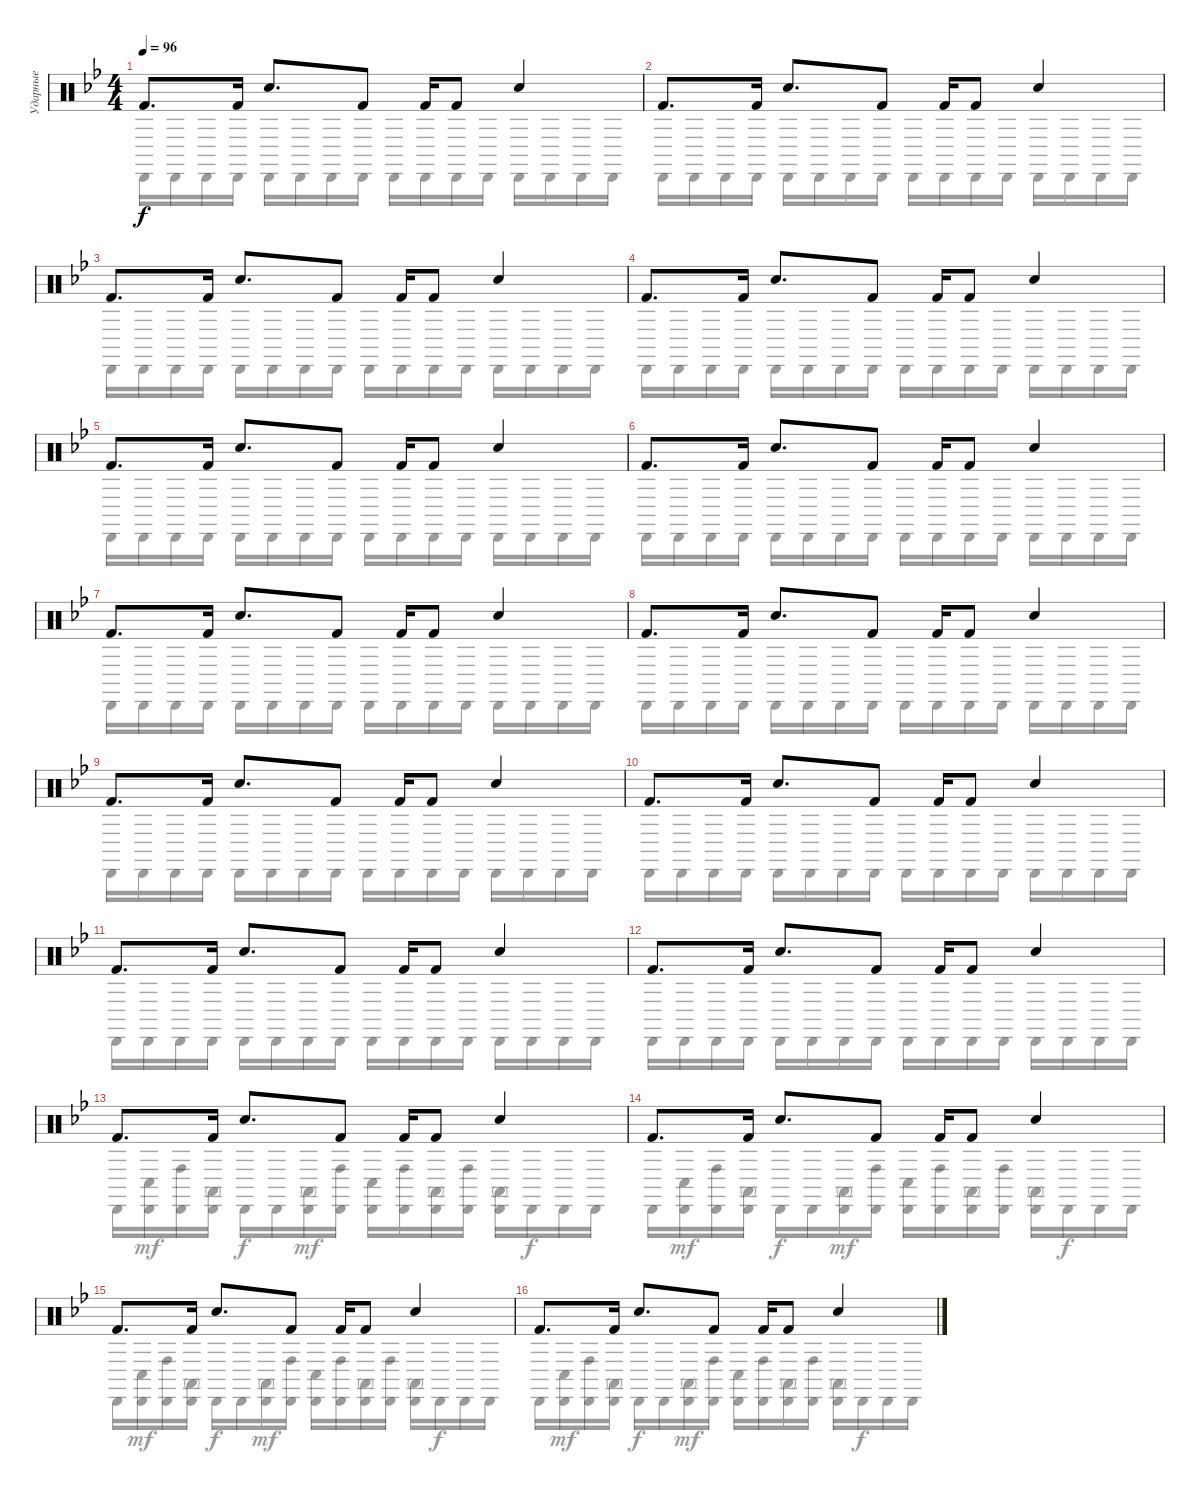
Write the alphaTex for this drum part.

\track ("Ударные" "Ударные") {instrument percussion}
\staff {score}
\articulation defaults
\voice
\ts (4 4)
\tempo 96
\clef neutral
\ks bb "Kick (hit) 2".8{d dy f} "Kick (hit) 2".16 "Hand Clap (hit)".8{d} "Kick (hit) 2".8 "Kick (hit) 2".16 "Kick (hit) 2".8 "Hand Clap (hit)".4
|
"Kick (hit) 2".8{d} "Kick (hit) 2".16 "Hand Clap (hit)".8{d} "Kick (hit) 2".8 "Kick (hit) 2".16 "Kick (hit) 2".8 "Hand Clap (hit)".4 |
"Kick (hit) 2".8{d} "Kick (hit) 2".16 "Hand Clap (hit)".8{d} "Kick (hit) 2".8 "Kick (hit) 2".16 "Kick (hit) 2".8 "Hand Clap (hit)".4 |
"Kick (hit) 2".8{d} "Kick (hit) 2".16 "Hand Clap (hit)".8{d} "Kick (hit) 2".8 "Kick (hit) 2".16 "Kick (hit) 2".8 "Hand Clap (hit)".4 |
"Kick (hit) 2".8{d} "Kick (hit) 2".16 "Hand Clap (hit)".8{d} "Kick (hit) 2".8 "Kick (hit) 2".16 "Kick (hit) 2".8 "Hand Clap (hit)".4 |
"Kick (hit) 2".8{d} "Kick (hit) 2".16 "Hand Clap (hit)".8{d} "Kick (hit) 2".8 "Kick (hit) 2".16 "Kick (hit) 2".8 "Hand Clap (hit)".4 |
"Kick (hit) 2".8{d} "Kick (hit) 2".16 "Hand Clap (hit)".8{d} "Kick (hit) 2".8 "Kick (hit) 2".16 "Kick (hit) 2".8 "Hand Clap (hit)".4 |
"Kick (hit) 2".8{d} "Kick (hit) 2".16 "Hand Clap (hit)".8{d} "Kick (hit) 2".8 "Kick (hit) 2".16 "Kick (hit) 2".8 "Hand Clap (hit)".4 |
"Kick (hit) 2".8{d} "Kick (hit) 2".16 "Hand Clap (hit)".8{d} "Kick (hit) 2".8 "Kick (hit) 2".16 "Kick (hit) 2".8 "Hand Clap (hit)".4 |
"Kick (hit) 2".8{d} "Kick (hit) 2".16 "Hand Clap (hit)".8{d} "Kick (hit) 2".8 "Kick (hit) 2".16 "Kick (hit) 2".8 "Hand Clap (hit)".4 |
"Kick (hit) 2".8{d} "Kick (hit) 2".16 "Hand Clap (hit)".8{d} "Kick (hit) 2".8 "Kick (hit) 2".16 "Kick (hit) 2".8 "Hand Clap (hit)".4 |
"Kick (hit) 2".8{d} "Kick (hit) 2".16 "Hand Clap (hit)".8{d} "Kick (hit) 2".8 "Kick (hit) 2".16 "Kick (hit) 2".8 "Hand Clap (hit)".4 |
"Kick (hit) 2".8{d} "Kick (hit) 2".16 "Hand Clap (hit)".8{d} "Kick (hit) 2".8 "Kick (hit) 2".16 "Kick (hit) 2".8 "Hand Clap (hit)".4 |
"Kick (hit) 2".8{d} "Kick (hit) 2".16 "Hand Clap (hit)".8{d} "Kick (hit) 2".8 "Kick (hit) 2".16 "Kick (hit) 2".8 "Hand Clap (hit)".4 |
"Kick (hit) 2".8{d} "Kick (hit) 2".16 "Hand Clap (hit)".8{d} "Kick (hit) 2".8 "Kick (hit) 2".16 "Kick (hit) 2".8 "Hand Clap (hit)".4 |
"Kick (hit) 2".8{d} "Kick (hit) 2".16 "Hand Clap (hit)".8{d} "Kick (hit) 2".8 "Kick (hit) 2".16 "Kick (hit) 2".8 "Hand Clap (hit)".4
\voice
\clef neutral
\ottava regular
\simile none
\ks bb "Cabasa (hit)".16{dy f} "Cabasa (hit)".16 "Cabasa (hit)".16 "Cabasa (hit)".16 "Cabasa (hit)".16 "Cabasa (hit)".16 "Cabasa (hit)".16 "Cabasa (hit)".16 "Cabasa (hit)".16 "Cabasa (hit)".16 "Cabasa (hit)".16 "Cabasa (hit)".16 "Cabasa (hit)".16 "Cabasa (hit)".16 "Cabasa (hit)".16 "Cabasa (hit)".16
|
"Cabasa (hit)".16 "Cabasa (hit)".16 "Cabasa (hit)".16 "Cabasa (hit)".16 "Cabasa (hit)".16 "Cabasa (hit)".16 "Cabasa (hit)".16 "Cabasa (hit)".16 "Cabasa (hit)".16 "Cabasa (hit)".16 "Cabasa (hit)".16 "Cabasa (hit)".16 "Cabasa (hit)".16 "Cabasa (hit)".16 "Cabasa (hit)".16 "Cabasa (hit)".16 |
"Cabasa (hit)".16 "Cabasa (hit)".16 "Cabasa (hit)".16 "Cabasa (hit)".16 "Cabasa (hit)".16 "Cabasa (hit)".16 "Cabasa (hit)".16 "Cabasa (hit)".16 "Cabasa (hit)".16 "Cabasa (hit)".16 "Cabasa (hit)".16 "Cabasa (hit)".16 "Cabasa (hit)".16 "Cabasa (hit)".16 "Cabasa (hit)".16 "Cabasa (hit)".16 |
"Cabasa (hit)".16 "Cabasa (hit)".16 "Cabasa (hit)".16 "Cabasa (hit)".16 "Cabasa (hit)".16 "Cabasa (hit)".16 "Cabasa (hit)".16 "Cabasa (hit)".16 "Cabasa (hit)".16 "Cabasa (hit)".16 "Cabasa (hit)".16 "Cabasa (hit)".16 "Cabasa (hit)".16 "Cabasa (hit)".16 "Cabasa (hit)".16 "Cabasa (hit)".16 |
"Cabasa (hit)".16 "Cabasa (hit)".16 "Cabasa (hit)".16 "Cabasa (hit)".16 "Cabasa (hit)".16 "Cabasa (hit)".16 "Cabasa (hit)".16 "Cabasa (hit)".16 "Cabasa (hit)".16 "Cabasa (hit)".16 "Cabasa (hit)".16 "Cabasa (hit)".16 "Cabasa (hit)".16 "Cabasa (hit)".16 "Cabasa (hit)".16 "Cabasa (hit)".16 |
"Cabasa (hit)".16 "Cabasa (hit)".16 "Cabasa (hit)".16 "Cabasa (hit)".16 "Cabasa (hit)".16 "Cabasa (hit)".16 "Cabasa (hit)".16 "Cabasa (hit)".16 "Cabasa (hit)".16 "Cabasa (hit)".16 "Cabasa (hit)".16 "Cabasa (hit)".16 "Cabasa (hit)".16 "Cabasa (hit)".16 "Cabasa (hit)".16 "Cabasa (hit)".16 |
"Cabasa (hit)".16 "Cabasa (hit)".16 "Cabasa (hit)".16 "Cabasa (hit)".16 "Cabasa (hit)".16 "Cabasa (hit)".16 "Cabasa (hit)".16 "Cabasa (hit)".16 "Cabasa (hit)".16 "Cabasa (hit)".16 "Cabasa (hit)".16 "Cabasa (hit)".16 "Cabasa (hit)".16 "Cabasa (hit)".16 "Cabasa (hit)".16 "Cabasa (hit)".16 |
"Cabasa (hit)".16 "Cabasa (hit)".16 "Cabasa (hit)".16 "Cabasa (hit)".16 "Cabasa (hit)".16 "Cabasa (hit)".16 "Cabasa (hit)".16 "Cabasa (hit)".16 "Cabasa (hit)".16 "Cabasa (hit)".16 "Cabasa (hit)".16 "Cabasa (hit)".16 "Cabasa (hit)".16 "Cabasa (hit)".16 "Cabasa (hit)".16 "Cabasa (hit)".16 |
"Cabasa (hit)".16 "Cabasa (hit)".16 "Cabasa (hit)".16 "Cabasa (hit)".16 "Cabasa (hit)".16 "Cabasa (hit)".16 "Cabasa (hit)".16 "Cabasa (hit)".16 "Cabasa (hit)".16 "Cabasa (hit)".16 "Cabasa (hit)".16 "Cabasa (hit)".16 "Cabasa (hit)".16 "Cabasa (hit)".16 "Cabasa (hit)".16 "Cabasa (hit)".16 |
"Cabasa (hit)".16 "Cabasa (hit)".16 "Cabasa (hit)".16 "Cabasa (hit)".16 "Cabasa (hit)".16 "Cabasa (hit)".16 "Cabasa (hit)".16 "Cabasa (hit)".16 "Cabasa (hit)".16 "Cabasa (hit)".16 "Cabasa (hit)".16 "Cabasa (hit)".16 "Cabasa (hit)".16 "Cabasa (hit)".16 "Cabasa (hit)".16 "Cabasa (hit)".16 |
"Cabasa (hit)".16 "Cabasa (hit)".16 "Cabasa (hit)".16 "Cabasa (hit)".16 "Cabasa (hit)".16 "Cabasa (hit)".16 "Cabasa (hit)".16 "Cabasa (hit)".16 "Cabasa (hit)".16 "Cabasa (hit)".16 "Cabasa (hit)".16 "Cabasa (hit)".16 "Cabasa (hit)".16 "Cabasa (hit)".16 "Cabasa (hit)".16 "Cabasa (hit)".16 |
"Cabasa (hit)".16 "Cabasa (hit)".16 "Cabasa (hit)".16 "Cabasa (hit)".16 "Cabasa (hit)".16 "Cabasa (hit)".16 "Cabasa (hit)".16 "Cabasa (hit)".16 "Cabasa (hit)".16 "Cabasa (hit)".16 "Cabasa (hit)".16 "Cabasa (hit)".16 "Cabasa (hit)".16 "Cabasa (hit)".16 "Cabasa (hit)".16 "Cabasa (hit)".16 |
"Cabasa (hit)".16 ("Cabasa (hit)" "Conga low (hit)").16{dy mf} ("Cabasa (hit)" "Conga high (hit)").16 ("Cabasa (hit)" "Conga high (mute)").16 "Cabasa (hit)".16{dy f} "Cabasa (hit)".16 ("Cabasa (hit)" "Conga high (mute)").16{dy mf} ("Cabasa (hit)" "Conga high (hit)").16 ("Cabasa (hit)" "Conga low (hit)").16 ("Cabasa (hit)" "Conga high (hit)").16 ("Cabasa (hit)" "Conga high (mute)").16 ("Cabasa (hit)" "Conga high (hit)").16 ("Cabasa (hit)" "Conga high (mute)").16 "Cabasa (hit)".16{dy f} "Cabasa (hit)".16 "Cabasa (hit)".16 |
"Cabasa (hit)".16 ("Cabasa (hit)" "Conga low (hit)").16{dy mf} ("Cabasa (hit)" "Conga high (hit)").16 ("Cabasa (hit)" "Conga high (mute)").16 "Cabasa (hit)".16{dy f} "Cabasa (hit)".16 ("Cabasa (hit)" "Conga high (mute)").16{dy mf} ("Cabasa (hit)" "Conga high (hit)").16 ("Cabasa (hit)" "Conga low (hit)").16 ("Cabasa (hit)" "Conga high (hit)").16 ("Cabasa (hit)" "Conga high (mute)").16 ("Cabasa (hit)" "Conga high (hit)").16 ("Cabasa (hit)" "Conga high (mute)").16 "Cabasa (hit)".16{dy f} "Cabasa (hit)".16 "Cabasa (hit)".16 |
"Cabasa (hit)".16 ("Cabasa (hit)" "Conga low (hit)").16{dy mf} ("Cabasa (hit)" "Conga high (hit)").16 ("Cabasa (hit)" "Conga high (mute)").16 "Cabasa (hit)".16{dy f} "Cabasa (hit)".16 ("Cabasa (hit)" "Conga high (mute)").16{dy mf} ("Cabasa (hit)" "Conga high (hit)").16 ("Cabasa (hit)" "Conga low (hit)").16 ("Cabasa (hit)" "Conga high (hit)").16 ("Cabasa (hit)" "Conga high (mute)").16 ("Cabasa (hit)" "Conga high (hit)").16 ("Cabasa (hit)" "Conga high (mute)").16 "Cabasa (hit)".16{dy f} "Cabasa (hit)".16 "Cabasa (hit)".16 |
"Cabasa (hit)".16 ("Cabasa (hit)" "Conga low (hit)").16{dy mf} ("Cabasa (hit)" "Conga high (hit)").16 ("Cabasa (hit)" "Conga high (mute)").16 "Cabasa (hit)".16{dy f} "Cabasa (hit)".16 ("Cabasa (hit)" "Conga high (mute)").16{dy mf} ("Cabasa (hit)" "Conga high (hit)").16 ("Cabasa (hit)" "Conga low (hit)").16 ("Cabasa (hit)" "Conga high (hit)").16 ("Cabasa (hit)" "Conga high (mute)").16 ("Cabasa (hit)" "Conga high (hit)").16 ("Cabasa (hit)" "Conga high (mute)").16 "Cabasa (hit)".16{dy f} "Cabasa (hit)".16 "Cabasa (hit)".16
